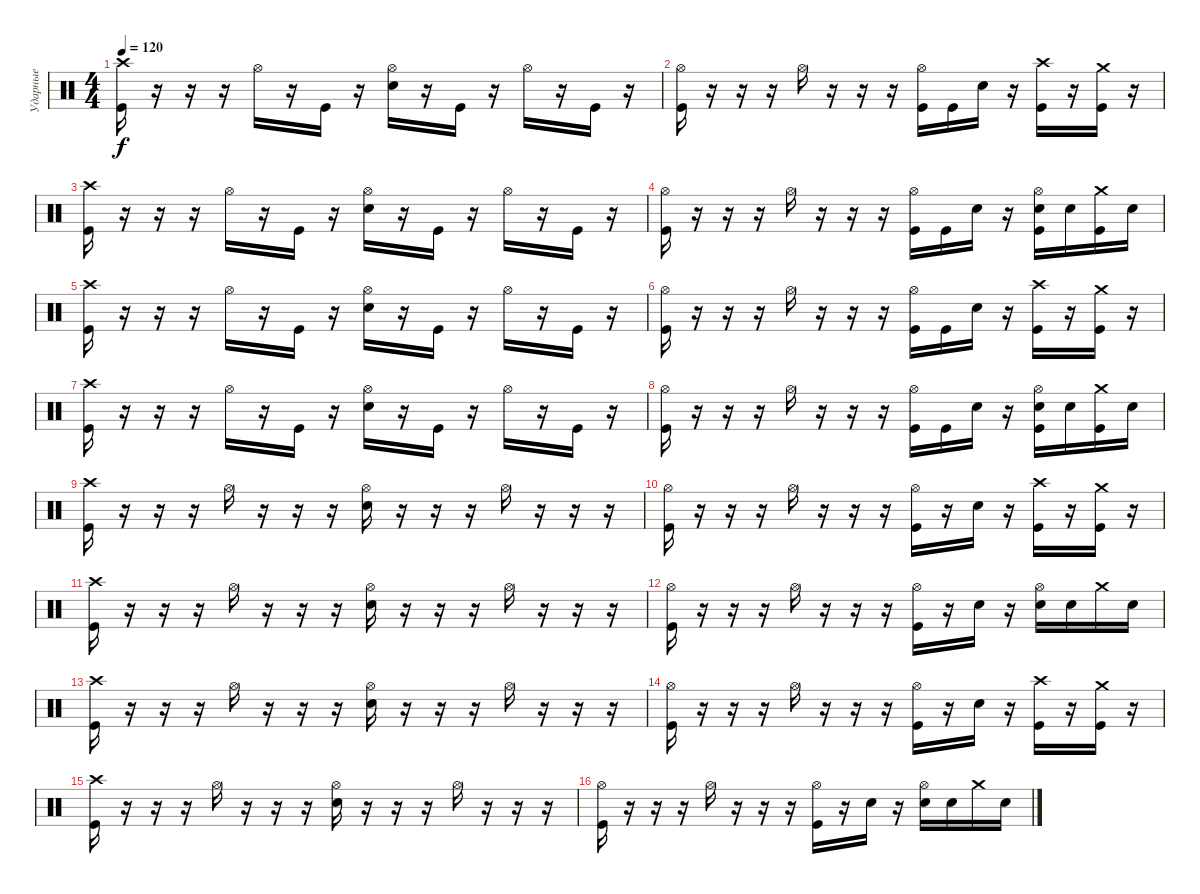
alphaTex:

\track ("Ударные" "Ударные") {instrument percussion}
\staff {score}
\articulation defaults
\ts (4 4)
\tempo 120
\clef neutral
\ks c
("Crash high (hit)" "Kick (hit)").16{dy f} r.16 r.16 r.16 "Hi-Hat (open)".16 r.16 "Kick (hit)".16 r.16 ("Hi-Hat (open)" "Electric Snare (hit)").16 r.16 "Kick (hit)".16 r.16 "Hi-Hat (open)".16 r.16 "Kick (hit)".16 r.16 |
("Hi-Hat (open)" "Kick (hit)").16 r.16 r.16 r.16 "Hi-Hat (open)".16 r.16 r.16 r.16 ("Hi-Hat (open)" "Kick (hit)").16 "Kick (hit)".16 "Electric Snare (hit)".16 r.16 ("Crash high (hit)" "Kick (hit)").16 r.16 ("Crash medium (hit)" "Kick (hit)").16 r.16 |
("Crash high (hit)" "Kick (hit)").16 r.16 r.16 r.16 "Hi-Hat (open)".16 r.16 "Kick (hit)".16 r.16 ("Hi-Hat (open)" "Electric Snare (hit)").16 r.16 "Kick (hit)".16 r.16 "Hi-Hat (open)".16 r.16 "Kick (hit)".16 r.16 |
("Hi-Hat (open)" "Kick (hit)").16 r.16 r.16 r.16 "Hi-Hat (open)".16 r.16 r.16 r.16 ("Hi-Hat (open)" "Kick (hit)").16 "Kick (hit)".16 "Electric Snare (hit)".16 r.16 ("Hi-Hat (open)" "Electric Snare (hit)" "Kick (hit)").16 "Electric Snare (hit)".16 ("Crash medium (hit)" "Kick (hit)").16 "Electric Snare (hit)".16 |
("Crash high (hit)" "Kick (hit)").16 r.16 r.16 r.16 "Hi-Hat (open)".16 r.16 "Kick (hit)".16 r.16 ("Hi-Hat (open)" "Electric Snare (hit)").16 r.16 "Kick (hit)".16 r.16 "Hi-Hat (open)".16 r.16 "Kick (hit)".16 r.16 |
("Hi-Hat (open)" "Kick (hit)").16 r.16 r.16 r.16 "Hi-Hat (open)".16 r.16 r.16 r.16 ("Hi-Hat (open)" "Kick (hit)").16 "Kick (hit)".16 "Electric Snare (hit)".16 r.16 ("Crash high (hit)" "Kick (hit)").16 r.16 ("Crash medium (hit)" "Kick (hit)").16 r.16 |
("Crash high (hit)" "Kick (hit)").16 r.16 r.16 r.16 "Hi-Hat (open)".16 r.16 "Kick (hit)".16 r.16 ("Hi-Hat (open)" "Electric Snare (hit)").16 r.16 "Kick (hit)".16 r.16 "Hi-Hat (open)".16 r.16 "Kick (hit)".16 r.16 |
("Hi-Hat (open)" "Kick (hit)").16 r.16 r.16 r.16 "Hi-Hat (open)".16 r.16 r.16 r.16 ("Hi-Hat (open)" "Kick (hit)").16 "Kick (hit)".16 "Electric Snare (hit)".16 r.16 ("Hi-Hat (open)" "Electric Snare (hit)" "Kick (hit)").16 "Electric Snare (hit)".16 ("Crash medium (hit)" "Kick (hit)").16 "Electric Snare (hit)".16 |
("Crash high (hit)" "Kick (hit)").16 r.16 r.16 r.16 "Hi-Hat (open)".16 r.16 r.16 r.16 ("Hi-Hat (open)" "Electric Snare (hit)").16 r.16 r.16 r.16 "Hi-Hat (open)".16 r.16 r.16 r.16 |
("Hi-Hat (open)" "Kick (hit)").16 r.16 r.16 r.16 "Hi-Hat (open)".16 r.16 r.16 r.16 ("Hi-Hat (open)" "Kick (hit)").16 r.16 "Electric Snare (hit)".16 r.16 ("Crash high (hit)" "Kick (hit)").16 r.16 ("Crash medium (hit)" "Kick (hit)").16 r.16 |
("Crash high (hit)" "Kick (hit)").16 r.16 r.16 r.16 "Hi-Hat (open)".16 r.16 r.16 r.16 ("Hi-Hat (open)" "Electric Snare (hit)").16 r.16 r.16 r.16 "Hi-Hat (open)".16 r.16 r.16 r.16 |
("Hi-Hat (open)" "Kick (hit)").16 r.16 r.16 r.16 "Hi-Hat (open)".16 r.16 r.16 r.16 ("Hi-Hat (open)" "Kick (hit)").16 r.16 "Electric Snare (hit)".16 r.16 ("Hi-Hat (open)" "Electric Snare (hit)").16 "Electric Snare (hit)".16 "Crash medium (hit)".16 "Electric Snare (hit)".16 |
("Crash high (hit)" "Kick (hit)").16 r.16 r.16 r.16 "Hi-Hat (open)".16 r.16 r.16 r.16 ("Hi-Hat (open)" "Electric Snare (hit)").16 r.16 r.16 r.16 "Hi-Hat (open)".16 r.16 r.16 r.16 |
("Hi-Hat (open)" "Kick (hit)").16 r.16 r.16 r.16 "Hi-Hat (open)".16 r.16 r.16 r.16 ("Hi-Hat (open)" "Kick (hit)").16 r.16 "Electric Snare (hit)".16 r.16 ("Crash high (hit)" "Kick (hit)").16 r.16 ("Crash medium (hit)" "Kick (hit)").16 r.16 |
("Crash high (hit)" "Kick (hit)").16 r.16 r.16 r.16 "Hi-Hat (open)".16 r.16 r.16 r.16 ("Hi-Hat (open)" "Electric Snare (hit)").16 r.16 r.16 r.16 "Hi-Hat (open)".16 r.16 r.16 r.16 |
("Hi-Hat (open)" "Kick (hit)").16 r.16 r.16 r.16 "Hi-Hat (open)".16 r.16 r.16 r.16 ("Hi-Hat (open)" "Kick (hit)").16 r.16 "Electric Snare (hit)".16 r.16 ("Hi-Hat (open)" "Electric Snare (hit)").16 "Electric Snare (hit)".16 "Crash medium (hit)".16 "Electric Snare (hit)".16
